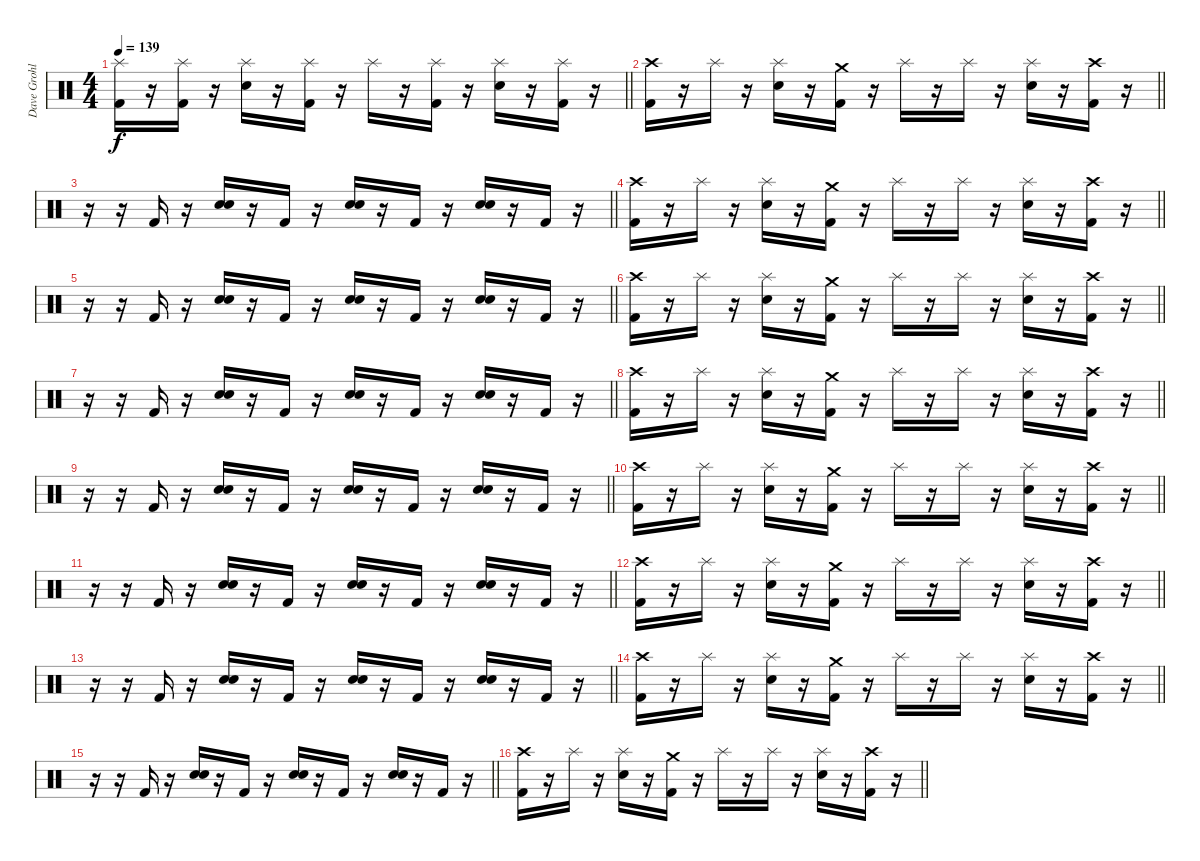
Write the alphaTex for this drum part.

\track ("Dave Grohl" "Dave Grohl") {instrument percussion}
\staff {score}
\articulation defaults
\ts (4 4)
\tempo 139
\clef neutral
\barLineRight lightlight
\ks c
("Splash (hit)" "Kick (hit) 2").16{dy f} r.16 ("Splash (hit)" "Kick (hit) 2").16 r.16 ("Splash (hit)" "Electric Snare (hit)").16 r.16 ("Splash (hit)" "Kick (hit) 2").16 r.16 "Splash (hit)".16 r.16 ("Splash (hit)" "Kick (hit) 2").16 r.16 ("Splash (hit)" "Electric Snare (hit)").16 r.16 ("Splash (hit)" "Kick (hit) 2").16 r.16 |
\barLineRight lightlight
("Crash high (hit)" "Kick (hit) 2").16 r.16 "Splash (hit)".16 r.16 ("Splash (hit)" "Electric Snare (hit)").16 r.16 ("Crash medium (hit)" "Kick (hit) 2").16 r.16 "Splash (hit)".16 r.16 "Splash (hit)".16 r.16 ("Splash (hit)" "Electric Snare (hit)").16 r.16 ("Crash high (hit)" "Kick (hit) 2").16 r.16 |
\barLineRight lightlight
r.16 r.16 "Kick (hit) 2".16 r.16 ("Electric Snare (hit)" "Electric Snare (hit)").16 r.16 "Kick (hit) 2".16 r.16 ("Electric Snare (hit)" "Electric Snare (hit)").16 r.16 "Kick (hit) 2".16 r.16 ("Electric Snare (hit)" "Electric Snare (hit)").16 r.16 "Kick (hit) 2".16 r.16 |
\barLineRight lightlight
("Crash high (hit)" "Kick (hit) 2").16 r.16 "Splash (hit)".16 r.16 ("Splash (hit)" "Electric Snare (hit)").16 r.16 ("Crash medium (hit)" "Kick (hit) 2").16 r.16 "Splash (hit)".16 r.16 "Splash (hit)".16 r.16 ("Splash (hit)" "Electric Snare (hit)").16 r.16 ("Crash high (hit)" "Kick (hit) 2").16 r.16 |
\barLineRight lightlight
r.16 r.16 "Kick (hit) 2".16 r.16 ("Electric Snare (hit)" "Electric Snare (hit)").16 r.16 "Kick (hit) 2".16 r.16 ("Electric Snare (hit)" "Electric Snare (hit)").16 r.16 "Kick (hit) 2".16 r.16 ("Electric Snare (hit)" "Electric Snare (hit)").16 r.16 "Kick (hit) 2".16 r.16 |
\barLineRight lightlight
("Crash high (hit)" "Kick (hit) 2").16 r.16 "Splash (hit)".16 r.16 ("Splash (hit)" "Electric Snare (hit)").16 r.16 ("Crash medium (hit)" "Kick (hit) 2").16 r.16 "Splash (hit)".16 r.16 "Splash (hit)".16 r.16 ("Splash (hit)" "Electric Snare (hit)").16 r.16 ("Crash high (hit)" "Kick (hit) 2").16 r.16 |
\barLineRight lightlight
r.16 r.16 "Kick (hit) 2".16 r.16 ("Electric Snare (hit)" "Electric Snare (hit)").16 r.16 "Kick (hit) 2".16 r.16 ("Electric Snare (hit)" "Electric Snare (hit)").16 r.16 "Kick (hit) 2".16 r.16 ("Electric Snare (hit)" "Electric Snare (hit)").16 r.16 "Kick (hit) 2".16 r.16 |
\barLineRight lightlight
("Crash high (hit)" "Kick (hit) 2").16 r.16 "Splash (hit)".16 r.16 ("Splash (hit)" "Electric Snare (hit)").16 r.16 ("Crash medium (hit)" "Kick (hit) 2").16 r.16 "Splash (hit)".16 r.16 "Splash (hit)".16 r.16 ("Splash (hit)" "Electric Snare (hit)").16 r.16 ("Crash high (hit)" "Kick (hit) 2").16 r.16 |
\barLineRight lightlight
r.16 r.16 "Kick (hit) 2".16 r.16 ("Electric Snare (hit)" "Electric Snare (hit)").16 r.16 "Kick (hit) 2".16 r.16 ("Electric Snare (hit)" "Electric Snare (hit)").16 r.16 "Kick (hit) 2".16 r.16 ("Electric Snare (hit)" "Electric Snare (hit)").16 r.16 "Kick (hit) 2".16 r.16 |
\barLineRight lightlight
("Crash high (hit)" "Kick (hit) 2").16 r.16 "Splash (hit)".16 r.16 ("Splash (hit)" "Electric Snare (hit)").16 r.16 ("Crash medium (hit)" "Kick (hit) 2").16 r.16 "Splash (hit)".16 r.16 "Splash (hit)".16 r.16 ("Splash (hit)" "Electric Snare (hit)").16 r.16 ("Crash high (hit)" "Kick (hit) 2").16 r.16 |
\barLineRight lightlight
r.16 r.16 "Kick (hit) 2".16 r.16 ("Electric Snare (hit)" "Electric Snare (hit)").16 r.16 "Kick (hit) 2".16 r.16 ("Electric Snare (hit)" "Electric Snare (hit)").16 r.16 "Kick (hit) 2".16 r.16 ("Electric Snare (hit)" "Electric Snare (hit)").16 r.16 "Kick (hit) 2".16 r.16 |
\barLineRight lightlight
("Crash high (hit)" "Kick (hit) 2").16 r.16 "Splash (hit)".16 r.16 ("Splash (hit)" "Electric Snare (hit)").16 r.16 ("Crash medium (hit)" "Kick (hit) 2").16 r.16 "Splash (hit)".16 r.16 "Splash (hit)".16 r.16 ("Splash (hit)" "Electric Snare (hit)").16 r.16 ("Crash high (hit)" "Kick (hit) 2").16 r.16 |
\barLineRight lightlight
r.16 r.16 "Kick (hit) 2".16 r.16 ("Electric Snare (hit)" "Electric Snare (hit)").16 r.16 "Kick (hit) 2".16 r.16 ("Electric Snare (hit)" "Electric Snare (hit)").16 r.16 "Kick (hit) 2".16 r.16 ("Electric Snare (hit)" "Electric Snare (hit)").16 r.16 "Kick (hit) 2".16 r.16 |
\barLineRight lightlight
("Crash high (hit)" "Kick (hit) 2").16 r.16 "Splash (hit)".16 r.16 ("Splash (hit)" "Electric Snare (hit)").16 r.16 ("Crash medium (hit)" "Kick (hit) 2").16 r.16 "Splash (hit)".16 r.16 "Splash (hit)".16 r.16 ("Splash (hit)" "Electric Snare (hit)").16 r.16 ("Crash high (hit)" "Kick (hit) 2").16 r.16 |
\barLineRight lightlight
r.16 r.16 "Kick (hit) 2".16 r.16 ("Electric Snare (hit)" "Electric Snare (hit)").16 r.16 "Kick (hit) 2".16 r.16 ("Electric Snare (hit)" "Electric Snare (hit)").16 r.16 "Kick (hit) 2".16 r.16 ("Electric Snare (hit)" "Electric Snare (hit)").16 r.16 "Kick (hit) 2".16 r.16 |
\barLineRight lightlight
("Crash high (hit)" "Kick (hit) 2").16 r.16 "Splash (hit)".16 r.16 ("Splash (hit)" "Electric Snare (hit)").16 r.16 ("Crash medium (hit)" "Kick (hit) 2").16 r.16 "Splash (hit)".16 r.16 "Splash (hit)".16 r.16 ("Splash (hit)" "Electric Snare (hit)").16 r.16 ("Crash high (hit)" "Kick (hit) 2").16 r.16
